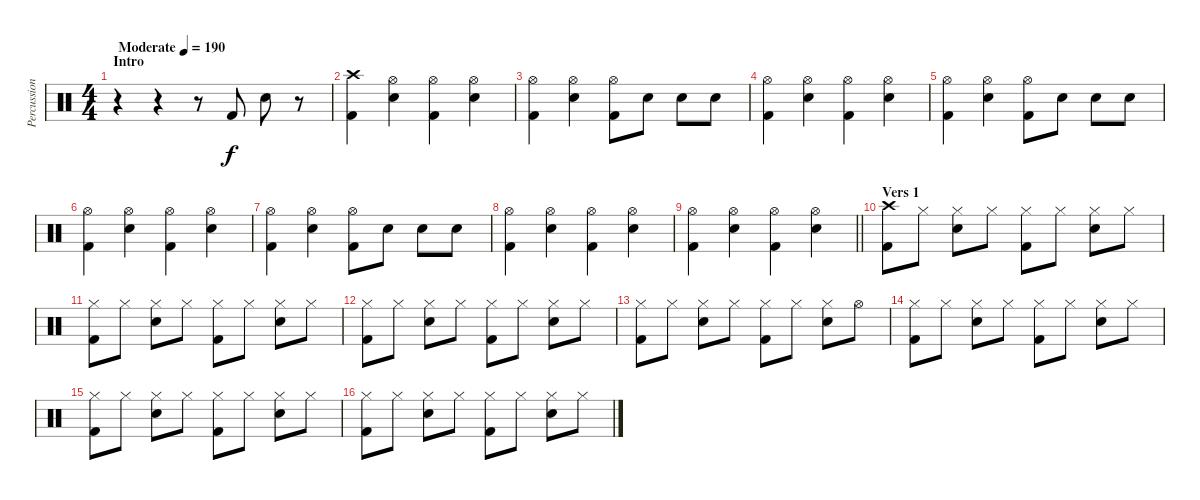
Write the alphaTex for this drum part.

\track ("Percussion" "Percussion") {instrument percussion}
\staff {score}
\articulation defaults
\ts (4 4)
\section ("" "Intro")
\tempo (190 "Moderate")
\clef neutral
\ks c
r.4{dy f} r.4 r.8 "Kick (hit) 2".8 "Snare (hit) 2".8 r.8 |
("Kick (hit) 2" "Crash high (hit)").4 ("Hi-Hat (open)" "Snare (hit) 2").4 ("Kick (hit) 2" "Hi-Hat (open)").4 ("Hi-Hat (open)" "Snare (hit) 2").4 |
("Kick (hit) 2" "Hi-Hat (open)").4 ("Hi-Hat (open)" "Snare (hit) 2").4 ("Kick (hit) 2" "Hi-Hat (open)").8 "Snare (hit) 2".8 "Snare (hit) 2".8 "Snare (hit) 2".8 |
("Kick (hit) 2" "Hi-Hat (open)").4 ("Hi-Hat (open)" "Snare (hit) 2").4 ("Kick (hit) 2" "Hi-Hat (open)").4 ("Hi-Hat (open)" "Snare (hit) 2").4 |
("Kick (hit) 2" "Hi-Hat (open)").4 ("Hi-Hat (open)" "Snare (hit) 2").4 ("Kick (hit) 2" "Hi-Hat (open)").8 "Snare (hit) 2".8 "Snare (hit) 2".8 "Snare (hit) 2".8 |
("Kick (hit) 2" "Hi-Hat (open)").4 ("Hi-Hat (open)" "Snare (hit) 2").4 ("Kick (hit) 2" "Hi-Hat (open)").4 ("Hi-Hat (open)" "Snare (hit) 2").4 |
("Kick (hit) 2" "Hi-Hat (open)").4 ("Hi-Hat (open)" "Snare (hit) 2").4 ("Kick (hit) 2" "Hi-Hat (open)").8 "Snare (hit) 2".8 "Snare (hit) 2".8 "Snare (hit) 2".8 |
("Kick (hit) 2" "Hi-Hat (open)").4 ("Hi-Hat (open)" "Snare (hit) 2").4 ("Kick (hit) 2" "Hi-Hat (open)").4 ("Hi-Hat (open)" "Snare (hit) 2").4 |
\barLineRight lightlight
("Kick (hit) 2" "Hi-Hat (open)").4 ("Hi-Hat (open)" "Snare (hit) 2").4 ("Kick (hit) 2" "Hi-Hat (open)").4 ("Hi-Hat (open)" "Snare (hit) 2").4 |
\section ("" "Vers 1")
("Kick (hit) 2" "Crash high (hit)").8 "Hi-Hat (closed)".8 ("Hi-Hat (closed)" "Snare (hit) 2").8 "Hi-Hat (closed)".8 ("Kick (hit) 2" "Hi-Hat (closed)").8 "Hi-Hat (closed)".8 ("Hi-Hat (closed)" "Snare (hit) 2").8 "Hi-Hat (closed)".8 |
("Kick (hit) 2" "Hi-Hat (closed)").8 "Hi-Hat (closed)".8 ("Hi-Hat (closed)" "Snare (hit) 2").8 "Hi-Hat (closed)".8 ("Kick (hit) 2" "Hi-Hat (closed)").8 "Hi-Hat (closed)".8 ("Hi-Hat (closed)" "Snare (hit) 2").8 "Hi-Hat (closed)".8 |
("Kick (hit) 2" "Hi-Hat (closed)").8 "Hi-Hat (closed)".8 ("Hi-Hat (closed)" "Snare (hit) 2").8 "Hi-Hat (closed)".8 ("Kick (hit) 2" "Hi-Hat (closed)").8 "Hi-Hat (closed)".8 ("Hi-Hat (closed)" "Snare (hit) 2").8 "Hi-Hat (closed)".8 |
("Kick (hit) 2" "Hi-Hat (closed)").8 "Hi-Hat (closed)".8 ("Hi-Hat (closed)" "Snare (hit) 2").8 "Hi-Hat (closed)".8 ("Kick (hit) 2" "Hi-Hat (closed)").8 "Hi-Hat (closed)".8 ("Hi-Hat (closed)" "Snare (hit) 2").8 "Hi-Hat (open)".8 |
("Kick (hit) 2" "Hi-Hat (closed)").8 "Hi-Hat (closed)".8 ("Hi-Hat (closed)" "Snare (hit) 2").8 "Hi-Hat (closed)".8 ("Kick (hit) 2" "Hi-Hat (closed)").8 "Hi-Hat (closed)".8 ("Hi-Hat (closed)" "Snare (hit) 2").8 "Hi-Hat (closed)".8 |
("Kick (hit) 2" "Hi-Hat (closed)").8 "Hi-Hat (closed)".8 ("Hi-Hat (closed)" "Snare (hit) 2").8 "Hi-Hat (closed)".8 ("Kick (hit) 2" "Hi-Hat (closed)").8 "Hi-Hat (closed)".8 ("Hi-Hat (closed)" "Snare (hit) 2").8 "Hi-Hat (closed)".8 |
("Kick (hit) 2" "Hi-Hat (closed)").8 "Hi-Hat (closed)".8 ("Hi-Hat (closed)" "Snare (hit) 2").8 "Hi-Hat (closed)".8 ("Kick (hit) 2" "Hi-Hat (closed)").8 "Hi-Hat (closed)".8 ("Hi-Hat (closed)" "Snare (hit) 2").8 "Hi-Hat (closed)".8
